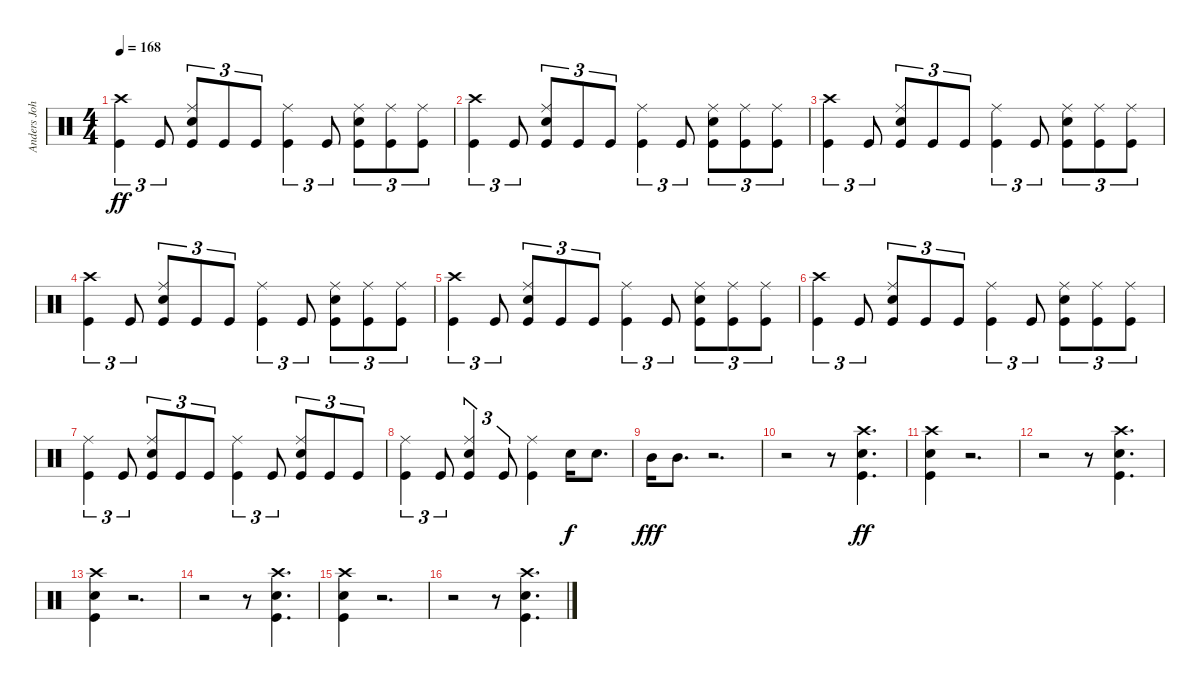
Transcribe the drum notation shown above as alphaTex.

\track ("Anders Johansson (Drums)" "Anders Joh") {instrument percussion}
\staff {score}
\articulation defaults
\ts (4 4)
\tempo 168
\clef neutral
\ks c
("Crash high (hit)" "Kick (hit)").4{tu (3 2) dy ff} "Kick (hit)".8{tu (3 2)} ("Ride (middle)" "Electric Snare (hit)" "Kick (hit)").8{tu (3 2)} "Kick (hit)".8{tu (3 2)} "Kick (hit)".8{tu (3 2)} ("Ride (middle)" "Kick (hit)").4{tu (3 2)} "Kick (hit)".8{tu (3 2)} ("Ride (middle)" "Electric Snare (hit)" "Kick (hit)").8{tu (3 2)} ("Ride (middle)" "Kick (hit)").8{tu (3 2)} ("Ride (middle)" "Kick (hit)").8{tu (3 2)} |
("Crash high (hit)" "Kick (hit)").4{tu (3 2)} "Kick (hit)".8{tu (3 2)} ("Ride (middle)" "Electric Snare (hit)" "Kick (hit)").8{tu (3 2)} "Kick (hit)".8{tu (3 2)} "Kick (hit)".8{tu (3 2)} ("Ride (middle)" "Kick (hit)").4{tu (3 2)} "Kick (hit)".8{tu (3 2)} ("Ride (middle)" "Electric Snare (hit)" "Kick (hit)").8{tu (3 2)} ("Ride (middle)" "Kick (hit)").8{tu (3 2)} ("Ride (middle)" "Kick (hit)").8{tu (3 2)} |
("Crash high (hit)" "Kick (hit)").4{tu (3 2)} "Kick (hit)".8{tu (3 2)} ("Ride (middle)" "Electric Snare (hit)" "Kick (hit)").8{tu (3 2)} "Kick (hit)".8{tu (3 2)} "Kick (hit)".8{tu (3 2)} ("Ride (middle)" "Kick (hit)").4{tu (3 2)} "Kick (hit)".8{tu (3 2)} ("Ride (middle)" "Electric Snare (hit)" "Kick (hit)").8{tu (3 2)} ("Ride (middle)" "Kick (hit)").8{tu (3 2)} ("Ride (middle)" "Kick (hit)").8{tu (3 2)} |
("Crash high (hit)" "Kick (hit)").4{tu (3 2)} "Kick (hit)".8{tu (3 2)} ("Ride (middle)" "Electric Snare (hit)" "Kick (hit)").8{tu (3 2)} "Kick (hit)".8{tu (3 2)} "Kick (hit)".8{tu (3 2)} ("Ride (middle)" "Kick (hit)").4{tu (3 2)} "Kick (hit)".8{tu (3 2)} ("Ride (middle)" "Electric Snare (hit)" "Kick (hit)").8{tu (3 2)} ("Ride (middle)" "Kick (hit)").8{tu (3 2)} ("Ride (middle)" "Kick (hit)").8{tu (3 2)} |
("Crash high (hit)" "Kick (hit)").4{tu (3 2)} "Kick (hit)".8{tu (3 2)} ("Ride (middle)" "Electric Snare (hit)" "Kick (hit)").8{tu (3 2)} "Kick (hit)".8{tu (3 2)} "Kick (hit)".8{tu (3 2)} ("Ride (middle)" "Kick (hit)").4{tu (3 2)} "Kick (hit)".8{tu (3 2)} ("Ride (middle)" "Electric Snare (hit)" "Kick (hit)").8{tu (3 2)} ("Ride (middle)" "Kick (hit)").8{tu (3 2)} ("Ride (middle)" "Kick (hit)").8{tu (3 2)} |
("Crash high (hit)" "Kick (hit)").4{tu (3 2)} "Kick (hit)".8{tu (3 2)} ("Ride (middle)" "Electric Snare (hit)" "Kick (hit)").8{tu (3 2)} "Kick (hit)".8{tu (3 2)} "Kick (hit)".8{tu (3 2)} ("Ride (middle)" "Kick (hit)").4{tu (3 2)} "Kick (hit)".8{tu (3 2)} ("Ride (middle)" "Electric Snare (hit)" "Kick (hit)").8{tu (3 2)} ("Ride (middle)" "Kick (hit)").8{tu (3 2)} ("Ride (middle)" "Kick (hit)").8{tu (3 2)} |
("Ride (middle)" "Kick (hit)").4{tu (3 2)} "Kick (hit)".8{tu (3 2)} ("Ride (middle)" "Electric Snare (hit)" "Kick (hit)").8{tu (3 2)} "Kick (hit)".8{tu (3 2)} "Kick (hit)".8{tu (3 2)} ("Ride (middle)" "Kick (hit)").4{tu (3 2)} "Kick (hit)".8{tu (3 2)} ("Ride (middle)" "Electric Snare (hit)" "Kick (hit)").8{tu (3 2)} "Kick (hit)".8{tu (3 2)} "Kick (hit)".8{tu (3 2)} |
("Ride (middle)" "Kick (hit)").4{tu (3 2)} "Kick (hit)".8{tu (3 2)} ("Ride (middle)" "Electric Snare (hit)" "Kick (hit)").4{tu (3 2)} "Kick (hit)".8{tu (3 2)} ("Ride (middle)" "Kick (hit)").4 "Electric Snare (hit)".16{dy f} "Electric Snare (hit)".8{d} |
"Mid Tom (hit)".16{dy fff} "Mid Tom (hit)".8{d} r.2{d} |
r.2 r.8 ("Crash high (hit)" "Electric Snare (hit)" "Kick (hit)").4{d dy ff} |
("Crash high (hit)" "Electric Snare (hit)" "Kick (hit)").4 r.2{d} |
r.2 r.8 ("Crash high (hit)" "Electric Snare (hit)" "Kick (hit)").4{d} |
("Crash high (hit)" "Electric Snare (hit)" "Kick (hit)").4 r.2{d} |
r.2 r.8 ("Crash high (hit)" "Electric Snare (hit)" "Kick (hit)").4{d} |
("Crash high (hit)" "Electric Snare (hit)" "Kick (hit)").4 r.2{d} |
r.2 r.8 ("Crash high (hit)" "Electric Snare (hit)" "Kick (hit)").4{d}
